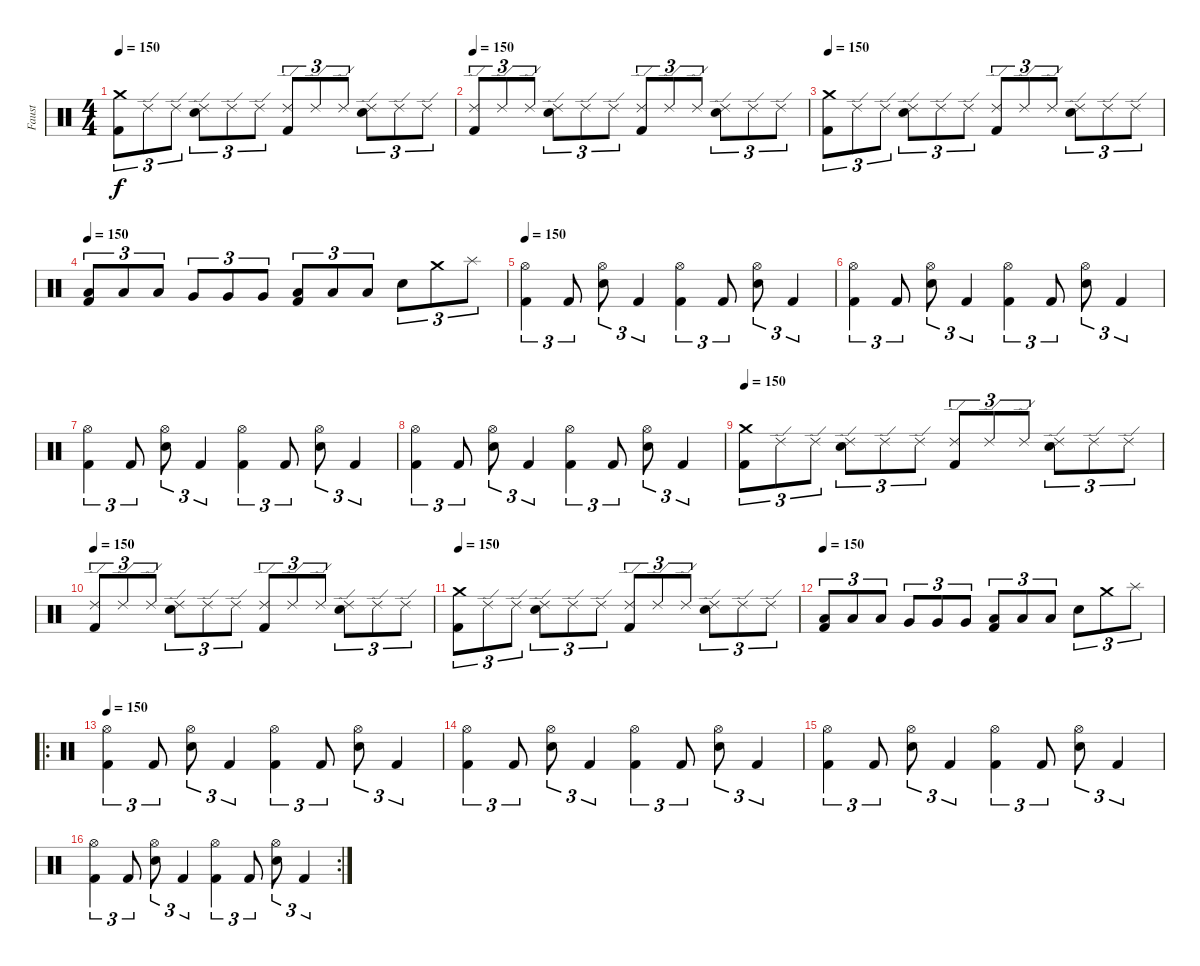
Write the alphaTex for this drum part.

\track ("Faust" "Faust") {instrument percussion}
\staff {score}
\articulation defaults
\ts (4 4)
\tempo 150
\clef neutral
\ks c
("Crash medium (hit)" "Kick (hit) 2").8{tu (3 2) dy f} "Ride (edge) 2".8{tu (3 2)} "Ride (edge) 2".8{tu (3 2)} ("Ride (edge) 2" "Electric Snare (hit)").8{tu (3 2)} "Ride (edge) 2".8{tu (3 2)} "Ride (edge) 2".8{tu (3 2)} ("Ride (edge) 2" "Kick (hit) 2").8{tu (3 2)} "Ride (edge) 2".8{tu (3 2)} "Ride (edge) 2".8{tu (3 2)} ("Ride (edge) 2" "Electric Snare (hit)").8{tu (3 2)} "Ride (edge) 2".8{tu (3 2)} "Ride (edge) 2".8{tu (3 2)} |
\tempo 150
("Ride (edge) 2" "Kick (hit) 2").8{tu (3 2)} "Ride (edge) 2".8{tu (3 2)} "Ride (edge) 2".8{tu (3 2)} ("Ride (edge) 2" "Electric Snare (hit)").8{tu (3 2)} "Ride (edge) 2".8{tu (3 2)} "Ride (edge) 2".8{tu (3 2)} ("Ride (edge) 2" "Kick (hit) 2").8{tu (3 2)} "Ride (edge) 2".8{tu (3 2)} "Ride (edge) 2".8{tu (3 2)} ("Ride (edge) 2" "Electric Snare (hit)").8{tu (3 2)} "Ride (edge) 2".8{tu (3 2)} "Ride (edge) 2".8{tu (3 2)} |
\tempo 150
("Crash medium (hit)" "Kick (hit) 2").8{tu (3 2)} "Ride (edge) 2".8{tu (3 2)} "Ride (edge) 2".8{tu (3 2)} ("Ride (edge) 2" "Electric Snare (hit)").8{tu (3 2)} "Ride (edge) 2".8{tu (3 2)} "Ride (edge) 2".8{tu (3 2)} ("Ride (edge) 2" "Kick (hit) 2").8{tu (3 2)} "Ride (edge) 2".8{tu (3 2)} "Ride (edge) 2".8{tu (3 2)} ("Ride (edge) 2" "Electric Snare (hit)").8{tu (3 2)} "Ride (edge) 2".8{tu (3 2)} "Ride (edge) 2".8{tu (3 2)} |
\tempo 150
("Low Tom (hit)" "Kick (hit) 2").8{tu (3 2)} "Low Tom (hit)".8{tu (3 2)} "Low Tom (hit)".8{tu (3 2)} "Very Low Tom (hit)".8{tu (3 2)} "Very Low Tom (hit)".8{tu (3 2)} "Very Low Tom (hit)".8{tu (3 2)} ("Low Floor Tom (hit)" "Kick (hit) 2").8{tu (3 2)} "Low Floor Tom (hit)".8{tu (3 2)} "Low Floor Tom (hit)".8{tu (3 2)} "Electric Snare (hit)".8{tu (3 2)} "Crash medium (hit)".8{tu (3 2)} "Splash (hit)".8{tu (3 2)} |
\tempo 150
("Hi-Hat (open)" "Kick (hit) 2").4{tu (3 2)} "Kick (hit) 2".8{tu (3 2)} ("Hi-Hat (open)" "Electric Snare (hit)").8{tu (3 2)} "Kick (hit) 2".4{tu (3 2)} ("Hi-Hat (open)" "Kick (hit) 2").4{tu (3 2)} "Kick (hit) 2".8{tu (3 2)} ("Hi-Hat (open)" "Electric Snare (hit)").8{tu (3 2)} "Kick (hit) 2".4{tu (3 2)} |
("Hi-Hat (open)" "Kick (hit) 2").4{tu (3 2)} "Kick (hit) 2".8{tu (3 2)} ("Hi-Hat (open)" "Electric Snare (hit)").8{tu (3 2)} "Kick (hit) 2".4{tu (3 2)} ("Hi-Hat (open)" "Kick (hit) 2").4{tu (3 2)} "Kick (hit) 2".8{tu (3 2)} ("Hi-Hat (open)" "Electric Snare (hit)").8{tu (3 2)} "Kick (hit) 2".4{tu (3 2)} |
("Hi-Hat (open)" "Kick (hit) 2").4{tu (3 2)} "Kick (hit) 2".8{tu (3 2)} ("Hi-Hat (open)" "Electric Snare (hit)").8{tu (3 2)} "Kick (hit) 2".4{tu (3 2)} ("Hi-Hat (open)" "Kick (hit) 2").4{tu (3 2)} "Kick (hit) 2".8{tu (3 2)} ("Hi-Hat (open)" "Electric Snare (hit)").8{tu (3 2)} "Kick (hit) 2".4{tu (3 2)} |
("Hi-Hat (open)" "Kick (hit) 2").4{tu (3 2)} "Kick (hit) 2".8{tu (3 2)} ("Hi-Hat (open)" "Electric Snare (hit)").8{tu (3 2)} "Kick (hit) 2".4{tu (3 2)} ("Hi-Hat (open)" "Kick (hit) 2").4{tu (3 2)} "Kick (hit) 2".8{tu (3 2)} ("Hi-Hat (open)" "Electric Snare (hit)").8{tu (3 2)} "Kick (hit) 2".4{tu (3 2)} |
\tempo 150
("Crash medium (hit)" "Kick (hit) 2").8{tu (3 2)} "Ride (edge) 2".8{tu (3 2)} "Ride (edge) 2".8{tu (3 2)} ("Ride (edge) 2" "Electric Snare (hit)").8{tu (3 2)} "Ride (edge) 2".8{tu (3 2)} "Ride (edge) 2".8{tu (3 2)} ("Ride (edge) 2" "Kick (hit) 2").8{tu (3 2)} "Ride (edge) 2".8{tu (3 2)} "Ride (edge) 2".8{tu (3 2)} ("Ride (edge) 2" "Electric Snare (hit)").8{tu (3 2)} "Ride (edge) 2".8{tu (3 2)} "Ride (edge) 2".8{tu (3 2)} |
\tempo 150
("Ride (edge) 2" "Kick (hit) 2").8{tu (3 2)} "Ride (edge) 2".8{tu (3 2)} "Ride (edge) 2".8{tu (3 2)} ("Ride (edge) 2" "Electric Snare (hit)").8{tu (3 2)} "Ride (edge) 2".8{tu (3 2)} "Ride (edge) 2".8{tu (3 2)} ("Ride (edge) 2" "Kick (hit) 2").8{tu (3 2)} "Ride (edge) 2".8{tu (3 2)} "Ride (edge) 2".8{tu (3 2)} ("Ride (edge) 2" "Electric Snare (hit)").8{tu (3 2)} "Ride (edge) 2".8{tu (3 2)} "Ride (edge) 2".8{tu (3 2)} |
\tempo 150
("Crash medium (hit)" "Kick (hit) 2").8{tu (3 2)} "Ride (edge) 2".8{tu (3 2)} "Ride (edge) 2".8{tu (3 2)} ("Ride (edge) 2" "Electric Snare (hit)").8{tu (3 2)} "Ride (edge) 2".8{tu (3 2)} "Ride (edge) 2".8{tu (3 2)} ("Ride (edge) 2" "Kick (hit) 2").8{tu (3 2)} "Ride (edge) 2".8{tu (3 2)} "Ride (edge) 2".8{tu (3 2)} ("Ride (edge) 2" "Electric Snare (hit)").8{tu (3 2)} "Ride (edge) 2".8{tu (3 2)} "Ride (edge) 2".8{tu (3 2)} |
\tempo 150
("Low Tom (hit)" "Kick (hit) 2").8{tu (3 2)} "Low Tom (hit)".8{tu (3 2)} "Low Tom (hit)".8{tu (3 2)} "Very Low Tom (hit)".8{tu (3 2)} "Very Low Tom (hit)".8{tu (3 2)} "Very Low Tom (hit)".8{tu (3 2)} ("Low Floor Tom (hit)" "Kick (hit) 2").8{tu (3 2)} "Low Floor Tom (hit)".8{tu (3 2)} "Low Floor Tom (hit)".8{tu (3 2)} "Electric Snare (hit)".8{tu (3 2)} "Crash medium (hit)".8{tu (3 2)} "Splash (hit)".8{tu (3 2)} |
\ro
\tempo 150
("Hi-Hat (open)" "Kick (hit) 2").4{tu (3 2)} "Kick (hit) 2".8{tu (3 2)} ("Hi-Hat (open)" "Electric Snare (hit)").8{tu (3 2)} "Kick (hit) 2".4{tu (3 2)} ("Hi-Hat (open)" "Kick (hit) 2").4{tu (3 2)} "Kick (hit) 2".8{tu (3 2)} ("Hi-Hat (open)" "Electric Snare (hit)").8{tu (3 2)} "Kick (hit) 2".4{tu (3 2)} |
("Hi-Hat (open)" "Kick (hit) 2").4{tu (3 2)} "Kick (hit) 2".8{tu (3 2)} ("Hi-Hat (open)" "Electric Snare (hit)").8{tu (3 2)} "Kick (hit) 2".4{tu (3 2)} ("Hi-Hat (open)" "Kick (hit) 2").4{tu (3 2)} "Kick (hit) 2".8{tu (3 2)} ("Hi-Hat (open)" "Electric Snare (hit)").8{tu (3 2)} "Kick (hit) 2".4{tu (3 2)} |
("Hi-Hat (open)" "Kick (hit) 2").4{tu (3 2)} "Kick (hit) 2".8{tu (3 2)} ("Hi-Hat (open)" "Electric Snare (hit)").8{tu (3 2)} "Kick (hit) 2".4{tu (3 2)} ("Hi-Hat (open)" "Kick (hit) 2").4{tu (3 2)} "Kick (hit) 2".8{tu (3 2)} ("Hi-Hat (open)" "Electric Snare (hit)").8{tu (3 2)} "Kick (hit) 2".4{tu (3 2)} |
\rc 2
("Hi-Hat (open)" "Kick (hit) 2").4{tu (3 2)} "Kick (hit) 2".8{tu (3 2)} ("Hi-Hat (open)" "Electric Snare (hit)").8{tu (3 2)} "Kick (hit) 2".4{tu (3 2)} ("Hi-Hat (open)" "Kick (hit) 2").4{tu (3 2)} "Kick (hit) 2".8{tu (3 2)} ("Hi-Hat (open)" "Electric Snare (hit)").8{tu (3 2)} "Kick (hit) 2".4{tu (3 2)}
